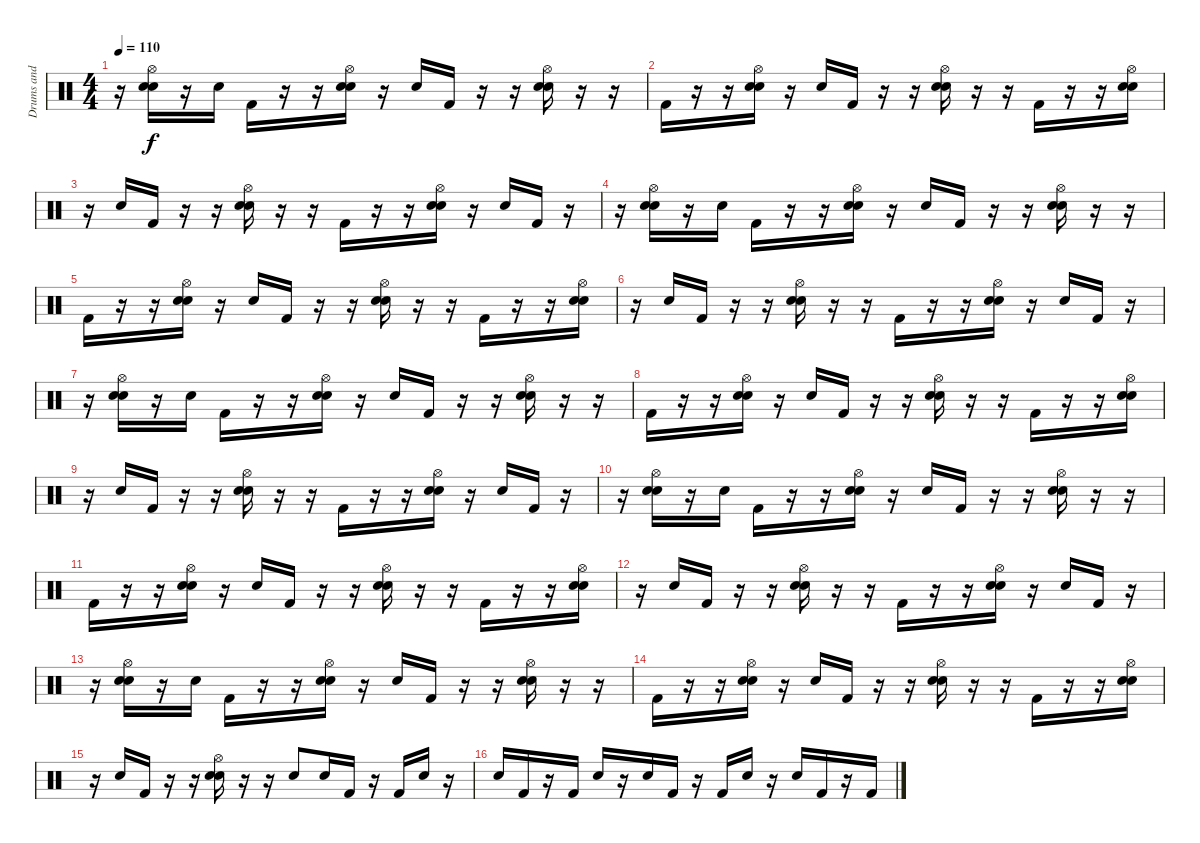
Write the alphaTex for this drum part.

\track ("Drums and Claps" "Drums and ") {instrument percussion}
\staff {score}
\articulation defaults
\ts (4 4)
\tempo 110
\clef neutral
\ks c
r.16{dy f} ("Hi-Hat (open)" "Hand Clap (hit)" "Snare (hit) 2").16 r.16 "Snare (hit) 2".16 "Kick (hit) 2".16 r.16 r.16 ("Hi-Hat (open)" "Hand Clap (hit)" "Snare (hit) 2").16 r.16 "Hand Clap (hit)".16 "Kick (hit) 2".16 r.16 r.16 ("Hi-Hat (open)" "Hand Clap (hit)" "Snare (hit) 2").16 r.16 r.16 |
"Kick (hit) 2".16 r.16 r.16 ("Hi-Hat (open)" "Hand Clap (hit)" "Snare (hit) 2").16 r.16 "Hand Clap (hit)".16 "Kick (hit) 2".16 r.16 r.16 ("Hi-Hat (open)" "Hand Clap (hit)" "Snare (hit) 2").16 r.16 r.16 "Kick (hit) 2".16 r.16 r.16 ("Hi-Hat (open)" "Hand Clap (hit)" "Snare (hit) 2").16 |
r.16 "Hand Clap (hit)".16 "Kick (hit) 2".16 r.16 r.16 ("Hi-Hat (open)" "Hand Clap (hit)" "Snare (hit) 2").16 r.16 r.16 "Kick (hit) 2".16 r.16 r.16 ("Hi-Hat (open)" "Hand Clap (hit)" "Snare (hit) 2").16 r.16 "Hand Clap (hit)".16 "Kick (hit) 2".16 r.16 |
r.16 ("Hi-Hat (open)" "Hand Clap (hit)" "Snare (hit) 2").16 r.16 "Snare (hit) 2".16 "Kick (hit) 2".16 r.16 r.16 ("Hi-Hat (open)" "Hand Clap (hit)" "Snare (hit) 2").16 r.16 "Hand Clap (hit)".16 "Kick (hit) 2".16 r.16 r.16 ("Hi-Hat (open)" "Hand Clap (hit)" "Snare (hit) 2").16 r.16 r.16 |
"Kick (hit) 2".16 r.16 r.16 ("Hi-Hat (open)" "Hand Clap (hit)" "Snare (hit) 2").16 r.16 "Hand Clap (hit)".16 "Kick (hit) 2".16 r.16 r.16 ("Hi-Hat (open)" "Hand Clap (hit)" "Snare (hit) 2").16 r.16 r.16 "Kick (hit) 2".16 r.16 r.16 ("Hi-Hat (open)" "Hand Clap (hit)" "Snare (hit) 2").16 |
r.16 "Hand Clap (hit)".16 "Kick (hit) 2".16 r.16 r.16 ("Hi-Hat (open)" "Hand Clap (hit)" "Snare (hit) 2").16 r.16 r.16 "Kick (hit) 2".16 r.16 r.16 ("Hi-Hat (open)" "Hand Clap (hit)" "Snare (hit) 2").16 r.16 "Hand Clap (hit)".16 "Kick (hit) 2".16 r.16 |
r.16 ("Hi-Hat (open)" "Hand Clap (hit)" "Snare (hit) 2").16 r.16 "Snare (hit) 2".16 "Kick (hit) 2".16 r.16 r.16 ("Hi-Hat (open)" "Hand Clap (hit)" "Snare (hit) 2").16 r.16 "Hand Clap (hit)".16 "Kick (hit) 2".16 r.16 r.16 ("Hi-Hat (open)" "Hand Clap (hit)" "Snare (hit) 2").16 r.16 r.16 |
"Kick (hit) 2".16 r.16 r.16 ("Hi-Hat (open)" "Hand Clap (hit)" "Snare (hit) 2").16 r.16 "Hand Clap (hit)".16 "Kick (hit) 2".16 r.16 r.16 ("Hi-Hat (open)" "Hand Clap (hit)" "Snare (hit) 2").16 r.16 r.16 "Kick (hit) 2".16 r.16 r.16 ("Hi-Hat (open)" "Hand Clap (hit)" "Snare (hit) 2").16 |
r.16 "Hand Clap (hit)".16 "Kick (hit) 2".16 r.16 r.16 ("Hi-Hat (open)" "Hand Clap (hit)" "Snare (hit) 2").16 r.16 r.16 "Kick (hit) 2".16 r.16 r.16 ("Hi-Hat (open)" "Hand Clap (hit)" "Snare (hit) 2").16 r.16 "Hand Clap (hit)".16 "Kick (hit) 2".16 r.16 |
r.16 ("Hi-Hat (open)" "Hand Clap (hit)" "Snare (hit) 2").16 r.16 "Snare (hit) 2".16 "Kick (hit) 2".16 r.16 r.16 ("Hi-Hat (open)" "Hand Clap (hit)" "Snare (hit) 2").16 r.16 "Hand Clap (hit)".16 "Kick (hit) 2".16 r.16 r.16 ("Hi-Hat (open)" "Hand Clap (hit)" "Snare (hit) 2").16 r.16 r.16 |
"Kick (hit) 2".16 r.16 r.16 ("Hi-Hat (open)" "Hand Clap (hit)" "Snare (hit) 2").16 r.16 "Hand Clap (hit)".16 "Kick (hit) 2".16 r.16 r.16 ("Hi-Hat (open)" "Hand Clap (hit)" "Snare (hit) 2").16 r.16 r.16 "Kick (hit) 2".16 r.16 r.16 ("Hi-Hat (open)" "Hand Clap (hit)" "Snare (hit) 2").16 |
r.16 "Hand Clap (hit)".16 "Kick (hit) 2".16 r.16 r.16 ("Hi-Hat (open)" "Hand Clap (hit)" "Snare (hit) 2").16 r.16 r.16 "Kick (hit) 2".16 r.16 r.16 ("Hi-Hat (open)" "Hand Clap (hit)" "Snare (hit) 2").16 r.16 "Hand Clap (hit)".16 "Kick (hit) 2".16 r.16 |
r.16 ("Hi-Hat (open)" "Hand Clap (hit)" "Snare (hit) 2").16 r.16 "Snare (hit) 2".16 "Kick (hit) 2".16 r.16 r.16 ("Hi-Hat (open)" "Hand Clap (hit)" "Snare (hit) 2").16 r.16 "Hand Clap (hit)".16 "Kick (hit) 2".16 r.16 r.16 ("Hi-Hat (open)" "Hand Clap (hit)" "Snare (hit) 2").16 r.16 r.16 |
"Kick (hit) 2".16 r.16 r.16 ("Hi-Hat (open)" "Hand Clap (hit)" "Snare (hit) 2").16 r.16 "Hand Clap (hit)".16 "Kick (hit) 2".16 r.16 r.16 ("Hi-Hat (open)" "Hand Clap (hit)" "Snare (hit) 2").16 r.16 r.16 "Kick (hit) 2".16 r.16 r.16 ("Hi-Hat (open)" "Hand Clap (hit)" "Snare (hit) 2").16 |
r.16 "Hand Clap (hit)".16 "Kick (hit) 2".16 r.16 r.16 ("Hi-Hat (open)" "Hand Clap (hit)" "Snare (hit) 2").16 r.16 r.16 "Snare (hit) 2".8 "Snare (hit) 2".16 "Kick (hit) 2".16 r.16 "Kick (hit) 2".16 "Snare (hit) 2".16 r.16 |
"Snare (hit) 2".16 "Kick (hit) 2".16 r.16 "Kick (hit) 2".16 "Snare (hit) 2".16 r.16 "Snare (hit) 2".16 "Kick (hit) 2".16 r.16 "Kick (hit) 2".16 "Snare (hit) 2".16 r.16 "Snare (hit) 2".16 "Kick (hit) 2".16 r.16 "Kick (hit) 2".16
